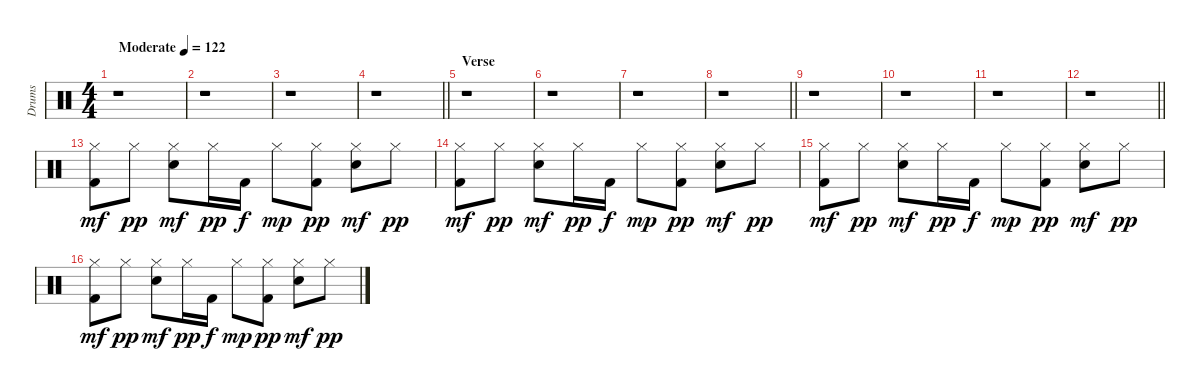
\track ("Drums" "Drums") {instrument percussion}
\staff {score}
\articulation defaults
\ts (4 4)
\tempo (122 "Moderate")
\clef neutral
\ks c
r.1{dy mf} |
r.1 |
r.1 |
\barLineRight lightlight
r.1 |
\section ("" "Verse")
r.1 |
r.1 |
r.1 |
\barLineRight lightlight
r.1 |
r.1 |
r.1 |
r.1 |
\barLineRight lightlight
r.1 |
("Hi-Hat (closed)" "Kick (hit) 2").8 "Hi-Hat (closed)".8{dy pp} ("Hi-Hat (closed)" "Electric Snare (hit)").8{dy mf} "Hi-Hat (closed)".16{dy pp} "Kick (hit) 2".16{dy f} "Hi-Hat (closed)".8{dy mp} ("Hi-Hat (closed)" "Kick (hit) 2").8{dy pp} ("Hi-Hat (closed)" "Electric Snare (hit)").8{dy mf} "Hi-Hat (closed)".8{dy pp} |
("Hi-Hat (closed)" "Kick (hit) 2").8{dy mf} "Hi-Hat (closed)".8{dy pp} ("Hi-Hat (closed)" "Electric Snare (hit)").8{dy mf} "Hi-Hat (closed)".16{dy pp} "Kick (hit) 2".16{dy f} "Hi-Hat (closed)".8{dy mp} ("Hi-Hat (closed)" "Kick (hit) 2").8{dy pp} ("Hi-Hat (closed)" "Electric Snare (hit)").8{dy mf} "Hi-Hat (closed)".8{dy pp} |
("Hi-Hat (closed)" "Kick (hit) 2").8{dy mf} "Hi-Hat (closed)".8{dy pp} ("Hi-Hat (closed)" "Electric Snare (hit)").8{dy mf} "Hi-Hat (closed)".16{dy pp} "Kick (hit) 2".16{dy f} "Hi-Hat (closed)".8{dy mp} ("Hi-Hat (closed)" "Kick (hit) 2").8{dy pp} ("Hi-Hat (closed)" "Electric Snare (hit)").8{dy mf} "Hi-Hat (closed)".8{dy pp} |
("Hi-Hat (closed)" "Kick (hit) 2").8{dy mf} "Hi-Hat (closed)".8{dy pp} ("Hi-Hat (closed)" "Electric Snare (hit)").8{dy mf} "Hi-Hat (closed)".16{dy pp} "Kick (hit) 2".16{dy f} "Hi-Hat (closed)".8{dy mp} ("Hi-Hat (closed)" "Kick (hit) 2").8{dy pp} ("Hi-Hat (closed)" "Electric Snare (hit)").8{dy mf} "Hi-Hat (closed)".8{dy pp}
